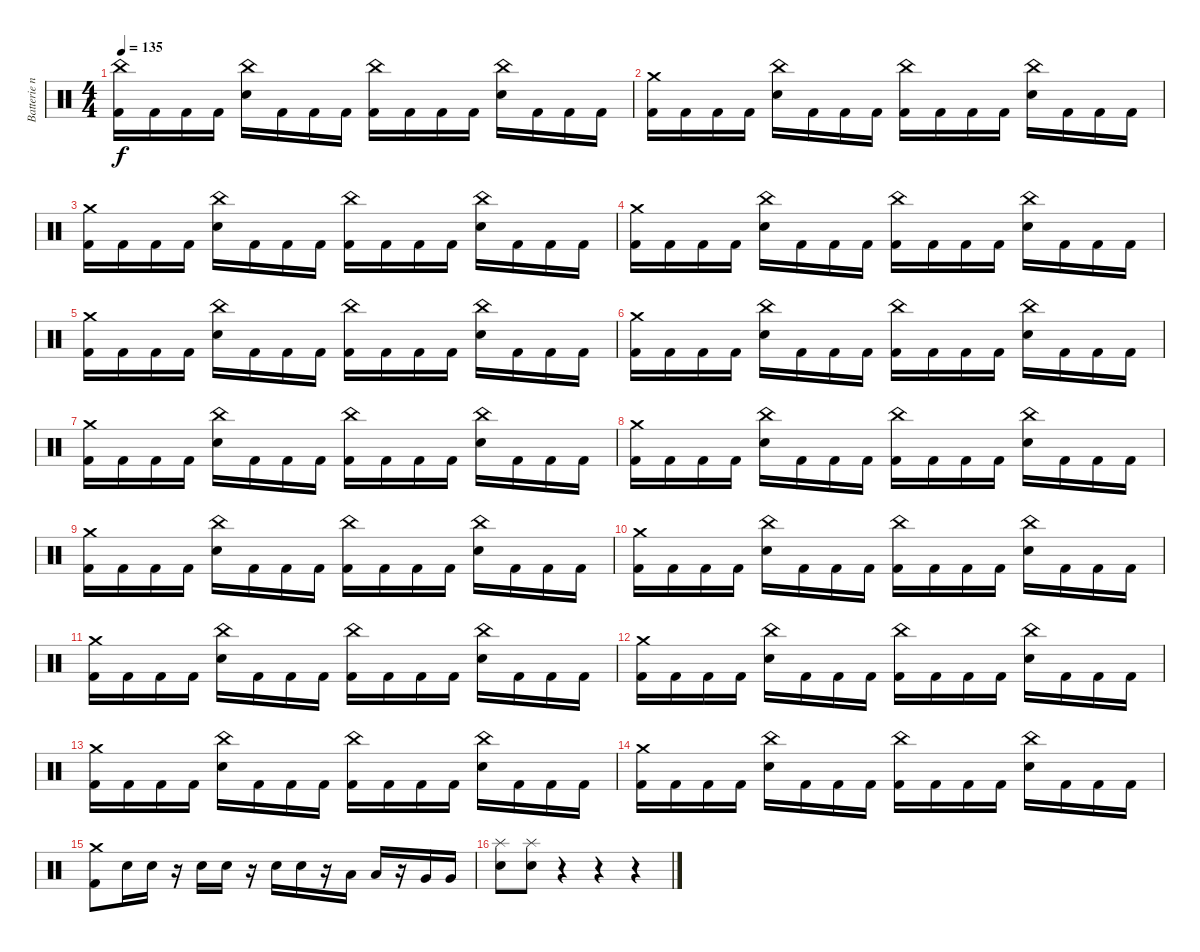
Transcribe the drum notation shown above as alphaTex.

\track ("Batterie n°3" "Batterie n") {instrument percussion}
\staff {score}
\articulation defaults
\ts (4 4)
\tempo 135
\clef neutral
\ks c
("China (hit)" "Kick (hit) 2").16{dy f} "Kick (hit) 2".16 "Kick (hit) 2".16 "Kick (hit) 2".16 ("China (hit)" "Snare (hit) 2").16 "Kick (hit) 2".16 "Kick (hit) 2".16 "Kick (hit) 2".16 ("China (hit)" "Kick (hit) 2").16 "Kick (hit) 2".16 "Kick (hit) 2".16 "Kick (hit) 2".16 ("China (hit)" "Snare (hit) 2").16 "Kick (hit) 2".16 "Kick (hit) 2".16 "Kick (hit) 2".16 |
("Crash medium (hit)" "Kick (hit) 2").16 "Kick (hit) 2".16 "Kick (hit) 2".16 "Kick (hit) 2".16 ("China (hit)" "Snare (hit) 2").16 "Kick (hit) 2".16 "Kick (hit) 2".16 "Kick (hit) 2".16 ("China (hit)" "Kick (hit) 2").16 "Kick (hit) 2".16 "Kick (hit) 2".16 "Kick (hit) 2".16 ("China (hit)" "Snare (hit) 2").16 "Kick (hit) 2".16 "Kick (hit) 2".16 "Kick (hit) 2".16 |
("Crash medium (hit)" "Kick (hit) 2").16 "Kick (hit) 2".16 "Kick (hit) 2".16 "Kick (hit) 2".16 ("China (hit)" "Snare (hit) 2").16 "Kick (hit) 2".16 "Kick (hit) 2".16 "Kick (hit) 2".16 ("China (hit)" "Kick (hit) 2").16 "Kick (hit) 2".16 "Kick (hit) 2".16 "Kick (hit) 2".16 ("China (hit)" "Snare (hit) 2").16 "Kick (hit) 2".16 "Kick (hit) 2".16 "Kick (hit) 2".16 |
("Crash medium (hit)" "Kick (hit) 2").16 "Kick (hit) 2".16 "Kick (hit) 2".16 "Kick (hit) 2".16 ("China (hit)" "Snare (hit) 2").16 "Kick (hit) 2".16 "Kick (hit) 2".16 "Kick (hit) 2".16 ("China (hit)" "Kick (hit) 2").16 "Kick (hit) 2".16 "Kick (hit) 2".16 "Kick (hit) 2".16 ("China (hit)" "Snare (hit) 2").16 "Kick (hit) 2".16 "Kick (hit) 2".16 "Kick (hit) 2".16 |
("Crash medium (hit)" "Kick (hit) 2").16 "Kick (hit) 2".16 "Kick (hit) 2".16 "Kick (hit) 2".16 ("China (hit)" "Snare (hit) 2").16 "Kick (hit) 2".16 "Kick (hit) 2".16 "Kick (hit) 2".16 ("China (hit)" "Kick (hit) 2").16 "Kick (hit) 2".16 "Kick (hit) 2".16 "Kick (hit) 2".16 ("China (hit)" "Snare (hit) 2").16 "Kick (hit) 2".16 "Kick (hit) 2".16 "Kick (hit) 2".16 |
("Crash medium (hit)" "Kick (hit) 2").16 "Kick (hit) 2".16 "Kick (hit) 2".16 "Kick (hit) 2".16 ("China (hit)" "Snare (hit) 2").16 "Kick (hit) 2".16 "Kick (hit) 2".16 "Kick (hit) 2".16 ("China (hit)" "Kick (hit) 2").16 "Kick (hit) 2".16 "Kick (hit) 2".16 "Kick (hit) 2".16 ("China (hit)" "Snare (hit) 2").16 "Kick (hit) 2".16 "Kick (hit) 2".16 "Kick (hit) 2".16 |
("Crash medium (hit)" "Kick (hit) 2").16 "Kick (hit) 2".16 "Kick (hit) 2".16 "Kick (hit) 2".16 ("China (hit)" "Snare (hit) 2").16 "Kick (hit) 2".16 "Kick (hit) 2".16 "Kick (hit) 2".16 ("China (hit)" "Kick (hit) 2").16 "Kick (hit) 2".16 "Kick (hit) 2".16 "Kick (hit) 2".16 ("China (hit)" "Snare (hit) 2").16 "Kick (hit) 2".16 "Kick (hit) 2".16 "Kick (hit) 2".16 |
("Crash medium (hit)" "Kick (hit) 2").16 "Kick (hit) 2".16 "Kick (hit) 2".16 "Kick (hit) 2".16 ("China (hit)" "Snare (hit) 2").16 "Kick (hit) 2".16 "Kick (hit) 2".16 "Kick (hit) 2".16 ("China (hit)" "Kick (hit) 2").16 "Kick (hit) 2".16 "Kick (hit) 2".16 "Kick (hit) 2".16 ("China (hit)" "Snare (hit) 2").16 "Kick (hit) 2".16 "Kick (hit) 2".16 "Kick (hit) 2".16 |
("Crash medium (hit)" "Kick (hit) 2").16 "Kick (hit) 2".16 "Kick (hit) 2".16 "Kick (hit) 2".16 ("China (hit)" "Snare (hit) 2").16 "Kick (hit) 2".16 "Kick (hit) 2".16 "Kick (hit) 2".16 ("China (hit)" "Kick (hit) 2").16 "Kick (hit) 2".16 "Kick (hit) 2".16 "Kick (hit) 2".16 ("China (hit)" "Snare (hit) 2").16 "Kick (hit) 2".16 "Kick (hit) 2".16 "Kick (hit) 2".16 |
("Crash medium (hit)" "Kick (hit) 2").16 "Kick (hit) 2".16 "Kick (hit) 2".16 "Kick (hit) 2".16 ("China (hit)" "Snare (hit) 2").16 "Kick (hit) 2".16 "Kick (hit) 2".16 "Kick (hit) 2".16 ("China (hit)" "Kick (hit) 2").16 "Kick (hit) 2".16 "Kick (hit) 2".16 "Kick (hit) 2".16 ("China (hit)" "Snare (hit) 2").16 "Kick (hit) 2".16 "Kick (hit) 2".16 "Kick (hit) 2".16 |
("Crash medium (hit)" "Kick (hit) 2").16 "Kick (hit) 2".16 "Kick (hit) 2".16 "Kick (hit) 2".16 ("China (hit)" "Snare (hit) 2").16 "Kick (hit) 2".16 "Kick (hit) 2".16 "Kick (hit) 2".16 ("China (hit)" "Kick (hit) 2").16 "Kick (hit) 2".16 "Kick (hit) 2".16 "Kick (hit) 2".16 ("China (hit)" "Snare (hit) 2").16 "Kick (hit) 2".16 "Kick (hit) 2".16 "Kick (hit) 2".16 |
("Crash medium (hit)" "Kick (hit) 2").16 "Kick (hit) 2".16 "Kick (hit) 2".16 "Kick (hit) 2".16 ("China (hit)" "Snare (hit) 2").16 "Kick (hit) 2".16 "Kick (hit) 2".16 "Kick (hit) 2".16 ("China (hit)" "Kick (hit) 2").16 "Kick (hit) 2".16 "Kick (hit) 2".16 "Kick (hit) 2".16 ("China (hit)" "Snare (hit) 2").16 "Kick (hit) 2".16 "Kick (hit) 2".16 "Kick (hit) 2".16 |
("Crash medium (hit)" "Kick (hit) 2").16 "Kick (hit) 2".16 "Kick (hit) 2".16 "Kick (hit) 2".16 ("China (hit)" "Snare (hit) 2").16 "Kick (hit) 2".16 "Kick (hit) 2".16 "Kick (hit) 2".16 ("China (hit)" "Kick (hit) 2").16 "Kick (hit) 2".16 "Kick (hit) 2".16 "Kick (hit) 2".16 ("China (hit)" "Snare (hit) 2").16 "Kick (hit) 2".16 "Kick (hit) 2".16 "Kick (hit) 2".16 |
("Crash medium (hit)" "Kick (hit) 2").16 "Kick (hit) 2".16 "Kick (hit) 2".16 "Kick (hit) 2".16 ("China (hit)" "Snare (hit) 2").16 "Kick (hit) 2".16 "Kick (hit) 2".16 "Kick (hit) 2".16 ("China (hit)" "Kick (hit) 2").16 "Kick (hit) 2".16 "Kick (hit) 2".16 "Kick (hit) 2".16 ("China (hit)" "Snare (hit) 2").16 "Kick (hit) 2".16 "Kick (hit) 2".16 "Kick (hit) 2".16 |
("Crash medium (hit)" "Kick (hit) 2").8 "Snare (hit) 2".16 "Snare (hit) 2".16 r.16 "Snare (hit) 2".16 "Snare (hit) 2".16 r.16 "Snare (hit) 2".16 "Snare (hit) 2".16 r.16 "Low Tom (hit)".16 "Low Tom (hit)".16 r.16 "Very Low Tom (hit)".16 "Very Low Tom (hit)".16 |
("Splash (hit)" "Snare (hit) 2").8 ("Splash (hit)" "Snare (hit) 2").8 r.4 r.4 r.4
